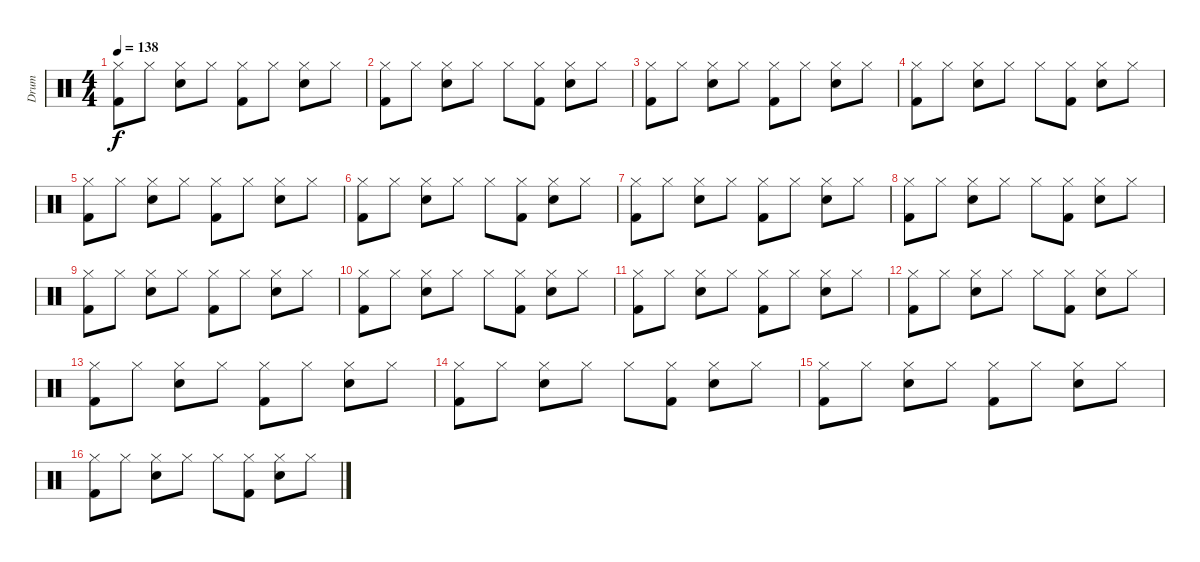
\track ("Drum" "Drum") {instrument percussion}
\staff {score}
\articulation defaults
\ts (4 4)
\tempo 138
\clef neutral
\ks c
("Hi-Hat (closed)" "Kick (hit) 2").8{dy f} "Hi-Hat (closed)".8 ("Hi-Hat (closed)" "Snare (hit) 2").8 "Hi-Hat (closed)".8 ("Hi-Hat (closed)" "Kick (hit) 2").8 "Hi-Hat (closed)".8 ("Hi-Hat (closed)" "Snare (hit) 2").8 "Hi-Hat (closed)".8 |
("Hi-Hat (closed)" "Kick (hit) 2").8 "Hi-Hat (closed)".8 ("Hi-Hat (closed)" "Snare (hit) 2").8 "Hi-Hat (closed)".8 "Hi-Hat (closed)".8 ("Hi-Hat (closed)" "Kick (hit) 2").8 ("Hi-Hat (closed)" "Snare (hit) 2").8 "Hi-Hat (closed)".8 |
("Hi-Hat (closed)" "Kick (hit) 2").8 "Hi-Hat (closed)".8 ("Hi-Hat (closed)" "Snare (hit) 2").8 "Hi-Hat (closed)".8 ("Hi-Hat (closed)" "Kick (hit) 2").8 "Hi-Hat (closed)".8 ("Hi-Hat (closed)" "Snare (hit) 2").8 "Hi-Hat (closed)".8 |
("Hi-Hat (closed)" "Kick (hit) 2").8 "Hi-Hat (closed)".8 ("Hi-Hat (closed)" "Snare (hit) 2").8 "Hi-Hat (closed)".8 "Hi-Hat (closed)".8 ("Hi-Hat (closed)" "Kick (hit) 2").8 ("Hi-Hat (closed)" "Snare (hit) 2").8 "Hi-Hat (closed)".8 |
("Hi-Hat (closed)" "Kick (hit) 2").8 "Hi-Hat (closed)".8 ("Hi-Hat (closed)" "Snare (hit) 2").8 "Hi-Hat (closed)".8 ("Hi-Hat (closed)" "Kick (hit) 2").8 "Hi-Hat (closed)".8 ("Hi-Hat (closed)" "Snare (hit) 2").8 "Hi-Hat (closed)".8 |
("Hi-Hat (closed)" "Kick (hit) 2").8 "Hi-Hat (closed)".8 ("Hi-Hat (closed)" "Snare (hit) 2").8 "Hi-Hat (closed)".8 "Hi-Hat (closed)".8 ("Hi-Hat (closed)" "Kick (hit) 2").8 ("Hi-Hat (closed)" "Snare (hit) 2").8 "Hi-Hat (closed)".8 |
("Hi-Hat (closed)" "Kick (hit) 2").8 "Hi-Hat (closed)".8 ("Hi-Hat (closed)" "Snare (hit) 2").8 "Hi-Hat (closed)".8 ("Hi-Hat (closed)" "Kick (hit) 2").8 "Hi-Hat (closed)".8 ("Hi-Hat (closed)" "Snare (hit) 2").8 "Hi-Hat (closed)".8 |
("Hi-Hat (closed)" "Kick (hit) 2").8 "Hi-Hat (closed)".8 ("Hi-Hat (closed)" "Snare (hit) 2").8 "Hi-Hat (closed)".8 "Hi-Hat (closed)".8 ("Hi-Hat (closed)" "Kick (hit) 2").8 ("Hi-Hat (closed)" "Snare (hit) 2").8 "Hi-Hat (closed)".8 |
("Hi-Hat (closed)" "Kick (hit) 2").8 "Hi-Hat (closed)".8 ("Hi-Hat (closed)" "Snare (hit) 2").8 "Hi-Hat (closed)".8 ("Hi-Hat (closed)" "Kick (hit) 2").8 "Hi-Hat (closed)".8 ("Hi-Hat (closed)" "Snare (hit) 2").8 "Hi-Hat (closed)".8 |
("Hi-Hat (closed)" "Kick (hit) 2").8 "Hi-Hat (closed)".8 ("Hi-Hat (closed)" "Snare (hit) 2").8 "Hi-Hat (closed)".8 "Hi-Hat (closed)".8 ("Hi-Hat (closed)" "Kick (hit) 2").8 ("Hi-Hat (closed)" "Snare (hit) 2").8 "Hi-Hat (closed)".8 |
("Hi-Hat (closed)" "Kick (hit) 2").8 "Hi-Hat (closed)".8 ("Hi-Hat (closed)" "Snare (hit) 2").8 "Hi-Hat (closed)".8 ("Hi-Hat (closed)" "Kick (hit) 2").8 "Hi-Hat (closed)".8 ("Hi-Hat (closed)" "Snare (hit) 2").8 "Hi-Hat (closed)".8 |
("Hi-Hat (closed)" "Kick (hit) 2").8 "Hi-Hat (closed)".8 ("Hi-Hat (closed)" "Snare (hit) 2").8 "Hi-Hat (closed)".8 "Hi-Hat (closed)".8 ("Hi-Hat (closed)" "Kick (hit) 2").8 ("Hi-Hat (closed)" "Snare (hit) 2").8 "Hi-Hat (closed)".8 |
("Hi-Hat (closed)" "Kick (hit) 2").8 "Hi-Hat (closed)".8 ("Hi-Hat (closed)" "Snare (hit) 2").8 "Hi-Hat (closed)".8 ("Hi-Hat (closed)" "Kick (hit) 2").8 "Hi-Hat (closed)".8 ("Hi-Hat (closed)" "Snare (hit) 2").8 "Hi-Hat (closed)".8 |
("Hi-Hat (closed)" "Kick (hit) 2").8 "Hi-Hat (closed)".8 ("Hi-Hat (closed)" "Snare (hit) 2").8 "Hi-Hat (closed)".8 "Hi-Hat (closed)".8 ("Hi-Hat (closed)" "Kick (hit) 2").8 ("Hi-Hat (closed)" "Snare (hit) 2").8 "Hi-Hat (closed)".8 |
("Hi-Hat (closed)" "Kick (hit) 2").8 "Hi-Hat (closed)".8 ("Hi-Hat (closed)" "Snare (hit) 2").8 "Hi-Hat (closed)".8 ("Hi-Hat (closed)" "Kick (hit) 2").8 "Hi-Hat (closed)".8 ("Hi-Hat (closed)" "Snare (hit) 2").8 "Hi-Hat (closed)".8 |
("Hi-Hat (closed)" "Kick (hit) 2").8 "Hi-Hat (closed)".8 ("Hi-Hat (closed)" "Snare (hit) 2").8 "Hi-Hat (closed)".8 "Hi-Hat (closed)".8 ("Hi-Hat (closed)" "Kick (hit) 2").8 ("Hi-Hat (closed)" "Snare (hit) 2").8 "Hi-Hat (closed)".8
